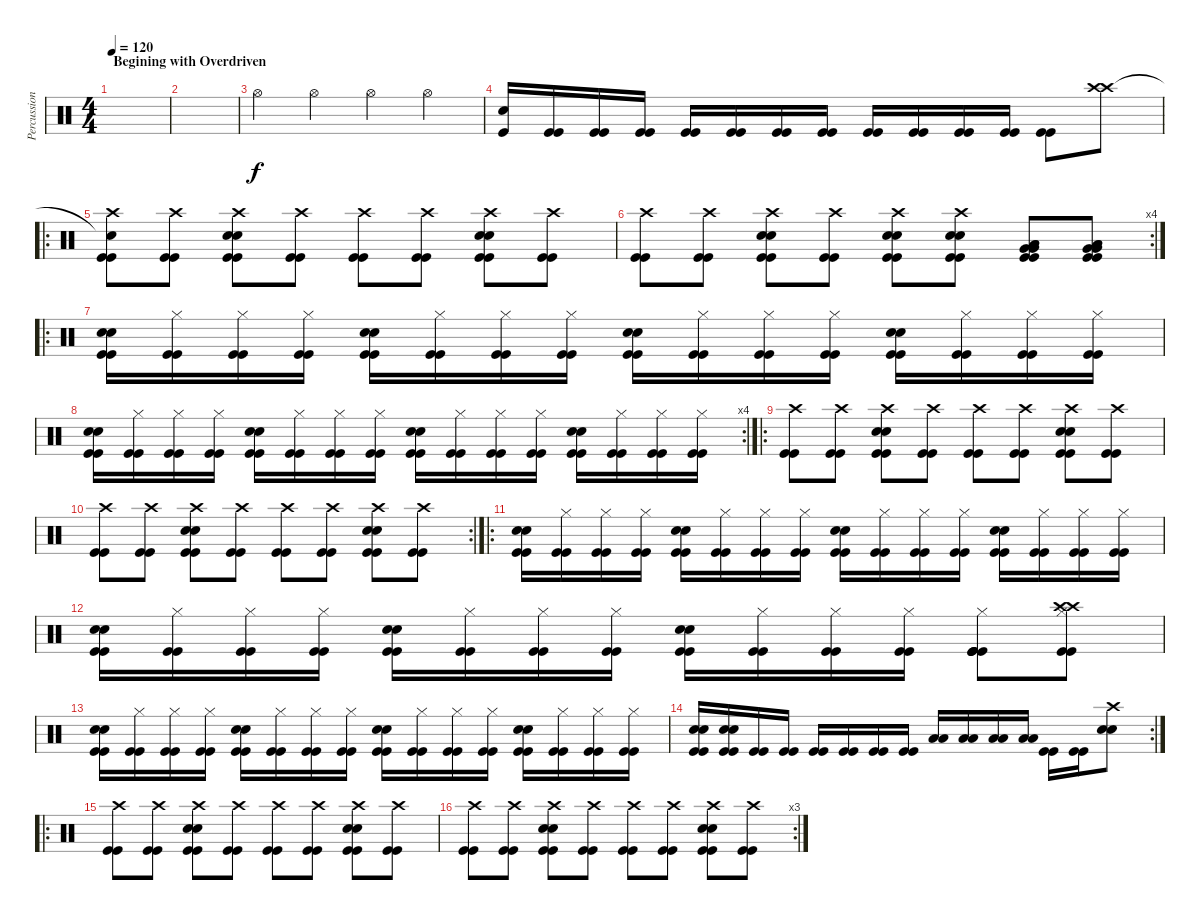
\track ("Percussion" "Percussion") {instrument percussion}
\staff {score}
\articulation defaults
\ts (4 4)
\section ("" "Begining with Overdriven")
\tempo 120
\clef neutral
\ks c
|
|
"Hi-Hat (open)".4 "Hi-Hat (open)".4 "Hi-Hat (open)".4 "Hi-Hat (open)".4 |
("Snare (hit) 2" "Kick (hit)").16 ("Kick (hit)" "Kick (hit)").16 ("Kick (hit)" "Kick (hit)").16 ("Kick (hit)" "Kick (hit)").16 ("Kick (hit)" "Kick (hit)").16 ("Kick (hit)" "Kick (hit)").16 ("Kick (hit)" "Kick (hit)").16 ("Kick (hit)" "Kick (hit)").16 ("Kick (hit)" "Kick (hit)").16 ("Kick (hit)" "Kick (hit)").16 ("Kick (hit)" "Kick (hit)").16 ("Kick (hit)" "Kick (hit)").16 ("Kick (hit)" "Kick (hit)").8 ("Crash high (hit)" "Crash high (hit)").8 |
\ro
("Crash high (hit)" "Snare (hit)"{t} "Kick (hit)" "Kick (hit)").8 ("Crash high (hit)" "Kick (hit)" "Kick (hit)").8 ("Crash high (hit)" "Snare (hit) 2" "Snare (hit) 2" "Kick (hit)" "Kick (hit)").8 ("Crash high (hit)" "Kick (hit)" "Kick (hit)").8 ("Crash high (hit)" "Kick (hit)" "Kick (hit)").8 ("Crash high (hit)" "Kick (hit)" "Kick (hit)").8 ("Crash high (hit)" "Snare (hit) 2" "Snare (hit) 2" "Kick (hit)" "Kick (hit)").8 ("Crash high (hit)" "Kick (hit)" "Kick (hit)").8 |
\rc 4
("Crash high (hit)" "Kick (hit)" "Kick (hit)").8 ("Crash high (hit)" "Kick (hit)" "Kick (hit)").8 ("Crash high (hit)" "Snare (hit) 2" "Snare (hit) 2" "Kick (hit)" "Kick (hit)").8 ("Crash high (hit)" "Kick (hit)" "Kick (hit)").8 ("Crash high (hit)" "Snare (hit) 2" "Snare (hit) 2" "Kick (hit)" "Kick (hit)").8 ("Crash high (hit)" "Snare (hit) 2" "Snare (hit) 2" "Kick (hit)" "Kick (hit)").8 ("Very Low Tom (hit)" "Low Tom (hit)" "Low Tom (hit)" "Very Low Tom (hit)" "Kick (hit)" "Kick (hit)").8 ("Very Low Tom (hit)" "Low Tom (hit)" "Low Tom (hit)" "Very Low Tom (hit)" "Kick (hit)" "Kick (hit)").8 |
\ro
("Snare (hit) 2" "Snare (hit) 2" "Kick (hit)" "Kick (hit)").16 ("Hi-Hat (closed)" "Kick (hit)" "Kick (hit)").16 ("Hi-Hat (closed)" "Kick (hit)" "Kick (hit)").16 ("Hi-Hat (closed)" "Kick (hit)" "Kick (hit)").16 ("Snare (hit) 2" "Snare (hit) 2" "Kick (hit)" "Kick (hit)").16 ("Hi-Hat (closed)" "Kick (hit)" "Kick (hit)").16 ("Hi-Hat (closed)" "Kick (hit)" "Kick (hit)").16 ("Hi-Hat (closed)" "Kick (hit)" "Kick (hit)").16 ("Snare (hit) 2" "Snare (hit) 2" "Kick (hit)" "Kick (hit)").16 ("Hi-Hat (closed)" "Kick (hit)" "Kick (hit)").16 ("Hi-Hat (closed)" "Kick (hit)" "Kick (hit)").16 ("Hi-Hat (closed)" "Kick (hit)" "Kick (hit)").16 ("Snare (hit) 2" "Snare (hit) 2" "Kick (hit)" "Kick (hit)").16 ("Hi-Hat (closed)" "Kick (hit)" "Kick (hit)").16 ("Hi-Hat (closed)" "Kick (hit)" "Kick (hit)").16 ("Hi-Hat (closed)" "Kick (hit)" "Kick (hit)").16 |
\rc 4
("Snare (hit) 2" "Snare (hit) 2" "Kick (hit)" "Kick (hit)").16 ("Hi-Hat (closed)" "Kick (hit)" "Kick (hit)").16 ("Hi-Hat (closed)" "Kick (hit)" "Kick (hit)").16 ("Hi-Hat (closed)" "Kick (hit)" "Kick (hit)").16 ("Snare (hit) 2" "Snare (hit) 2" "Kick (hit)" "Kick (hit)").16 ("Hi-Hat (closed)" "Kick (hit)" "Kick (hit)").16 ("Hi-Hat (closed)" "Kick (hit)" "Kick (hit)").16 ("Hi-Hat (closed)" "Kick (hit)" "Kick (hit)").16 ("Snare (hit) 2" "Snare (hit) 2" "Kick (hit)" "Kick (hit)").16 ("Hi-Hat (closed)" "Kick (hit)" "Kick (hit)").16 ("Hi-Hat (closed)" "Kick (hit)" "Kick (hit)").16 ("Hi-Hat (closed)" "Kick (hit)" "Kick (hit)").16 ("Snare (hit) 2" "Snare (hit) 2" "Kick (hit)" "Kick (hit)").16 ("Hi-Hat (closed)" "Kick (hit)" "Kick (hit)").16 ("Hi-Hat (closed)" "Kick (hit)" "Kick (hit)").16 ("Hi-Hat (closed)" "Kick (hit)" "Kick (hit)").16 |
\ro
("Crash high (hit)" "Kick (hit)" "Kick (hit)").8 ("Crash high (hit)" "Kick (hit)" "Kick (hit)").8 ("Crash high (hit)" "Snare (hit) 2" "Snare (hit) 2" "Kick (hit)" "Kick (hit)").8 ("Crash high (hit)" "Kick (hit)" "Kick (hit)").8 ("Crash high (hit)" "Kick (hit)" "Kick (hit)").8 ("Crash high (hit)" "Kick (hit)" "Kick (hit)").8 ("Crash high (hit)" "Snare (hit) 2" "Snare (hit) 2" "Kick (hit)" "Kick (hit)").8 ("Crash high (hit)" "Kick (hit)" "Kick (hit)").8 |
\rc 2
("Crash high (hit)" "Kick (hit)" "Kick (hit)").8 ("Crash high (hit)" "Kick (hit)" "Kick (hit)").8 ("Crash high (hit)" "Snare (hit) 2" "Snare (hit) 2" "Kick (hit)" "Kick (hit)").8 ("Crash high (hit)" "Kick (hit)" "Kick (hit)").8 ("Crash high (hit)" "Kick (hit)" "Kick (hit)").8 ("Crash high (hit)" "Kick (hit)" "Kick (hit)").8 ("Crash high (hit)" "Snare (hit) 2" "Snare (hit) 2" "Kick (hit)" "Kick (hit)").8 ("Crash high (hit)" "Kick (hit)" "Kick (hit)").8 |
\ro
("Snare (hit) 2" "Snare (hit) 2" "Kick (hit)" "Kick (hit)").16 ("Hi-Hat (closed)" "Kick (hit)" "Kick (hit)").16 ("Hi-Hat (closed)" "Kick (hit)" "Kick (hit)").16 ("Hi-Hat (closed)" "Kick (hit)" "Kick (hit)").16 ("Snare (hit) 2" "Snare (hit) 2" "Kick (hit)" "Kick (hit)").16 ("Hi-Hat (closed)" "Kick (hit)" "Kick (hit)").16 ("Hi-Hat (closed)" "Kick (hit)" "Kick (hit)").16 ("Hi-Hat (closed)" "Kick (hit)" "Kick (hit)").16 ("Snare (hit) 2" "Snare (hit) 2" "Kick (hit)" "Kick (hit)").16 ("Hi-Hat (closed)" "Kick (hit)" "Kick (hit)").16 ("Hi-Hat (closed)" "Kick (hit)" "Kick (hit)").16 ("Hi-Hat (closed)" "Kick (hit)" "Kick (hit)").16 ("Snare (hit) 2" "Snare (hit) 2" "Kick (hit)" "Kick (hit)").16 ("Hi-Hat (closed)" "Kick (hit)" "Kick (hit)").16 ("Hi-Hat (closed)" "Kick (hit)" "Kick (hit)").16 ("Hi-Hat (closed)" "Kick (hit)" "Kick (hit)").16 |
("Snare (hit) 2" "Snare (hit) 2" "Kick (hit)" "Kick (hit)").16 ("Hi-Hat (closed)" "Kick (hit)" "Kick (hit)").16 ("Hi-Hat (closed)" "Kick (hit)" "Kick (hit)").16 ("Hi-Hat (closed)" "Kick (hit)" "Kick (hit)").16 ("Snare (hit) 2" "Snare (hit) 2" "Kick (hit)" "Kick (hit)").16 ("Hi-Hat (closed)" "Kick (hit)" "Kick (hit)").16 ("Hi-Hat (closed)" "Kick (hit)" "Kick (hit)").16 ("Hi-Hat (closed)" "Kick (hit)" "Kick (hit)").16 ("Snare (hit) 2" "Snare (hit) 2" "Kick (hit)" "Kick (hit)").16 ("Hi-Hat (closed)" "Kick (hit)" "Kick (hit)").16 ("Hi-Hat (closed)" "Kick (hit)" "Kick (hit)").16 ("Hi-Hat (closed)" "Kick (hit)" "Kick (hit)").16 ("Hi-Hat (closed)" "Kick (hit)" "Kick (hit)" "Kick (hit)" "Kick (hit)").8 ("Hi-Hat (closed)" "Crash high (hit)" "Crash high (hit)" "Kick (hit)" "Kick (hit)").8 |
("Snare (hit) 2" "Snare (hit) 2" "Kick (hit)" "Kick (hit)").16 ("Hi-Hat (closed)" "Kick (hit)" "Kick (hit)").16 ("Hi-Hat (closed)" "Kick (hit)" "Kick (hit)").16 ("Hi-Hat (closed)" "Kick (hit)" "Kick (hit)").16 ("Snare (hit) 2" "Snare (hit) 2" "Kick (hit)" "Kick (hit)").16 ("Hi-Hat (closed)" "Kick (hit)" "Kick (hit)").16 ("Hi-Hat (closed)" "Kick (hit)" "Kick (hit)").16 ("Hi-Hat (closed)" "Kick (hit)" "Kick (hit)").16 ("Snare (hit) 2" "Snare (hit) 2" "Kick (hit)" "Kick (hit)").16 ("Hi-Hat (closed)" "Kick (hit)" "Kick (hit)").16 ("Hi-Hat (closed)" "Kick (hit)" "Kick (hit)").16 ("Hi-Hat (closed)" "Kick (hit)" "Kick (hit)").16 ("Snare (hit) 2" "Snare (hit) 2" "Kick (hit)" "Kick (hit)").16 ("Hi-Hat (closed)" "Kick (hit)" "Kick (hit)").16 ("Hi-Hat (closed)" "Kick (hit)" "Kick (hit)").16 ("Hi-Hat (closed)" "Kick (hit)" "Kick (hit)").16 |
\rc 2
("Snare (hit) 2" "Snare (hit) 2" "Kick (hit)" "Kick (hit)").16 ("Snare (hit) 2" "Snare (hit) 2" "Kick (hit)" "Kick (hit)").16 ("Kick (hit)" "Kick (hit)").16 ("Kick (hit)" "Kick (hit)").16 ("Kick (hit)" "Kick (hit)").16 ("Kick (hit)" "Kick (hit)").16 ("Kick (hit)" "Kick (hit)").16 ("Kick (hit)" "Kick (hit)").16 ("Low Floor Tom (hit)" "Low Floor Tom (hit)").16 ("Low Floor Tom (hit)" "Low Floor Tom (hit)").16 ("Low Floor Tom (hit)" "Low Floor Tom (hit)").16 ("Low Floor Tom (hit)" "Low Floor Tom (hit)").16 ("Kick (hit)" "Kick (hit)").16 ("Kick (hit)" "Kick (hit)").16 ("Crash high (hit)" "Snare (hit) 2" "Snare (hit) 2").8 |
\ro
("Crash high (hit)" "Kick (hit)" "Kick (hit)").8 ("Crash high (hit)" "Kick (hit)" "Kick (hit)").8 ("Crash high (hit)" "Snare (hit) 2" "Snare (hit) 2" "Kick (hit)" "Kick (hit)").8 ("Crash high (hit)" "Kick (hit)" "Kick (hit)").8 ("Crash high (hit)" "Kick (hit)" "Kick (hit)").8 ("Crash high (hit)" "Kick (hit)" "Kick (hit)").8 ("Crash high (hit)" "Snare (hit) 2" "Snare (hit) 2" "Kick (hit)" "Kick (hit)").8 ("Crash high (hit)" "Kick (hit)" "Kick (hit)").8 |
\rc 3
("Crash high (hit)" "Kick (hit)" "Kick (hit)").8 ("Crash high (hit)" "Kick (hit)" "Kick (hit)").8 ("Crash high (hit)" "Snare (hit) 2" "Snare (hit) 2" "Kick (hit)" "Kick (hit)").8 ("Crash high (hit)" "Kick (hit)" "Kick (hit)").8 ("Crash high (hit)" "Kick (hit)" "Kick (hit)").8 ("Crash high (hit)" "Kick (hit)" "Kick (hit)").8 ("Crash high (hit)" "Snare (hit) 2" "Snare (hit) 2" "Kick (hit)" "Kick (hit)").8 ("Crash high (hit)" "Kick (hit)" "Kick (hit)").8
